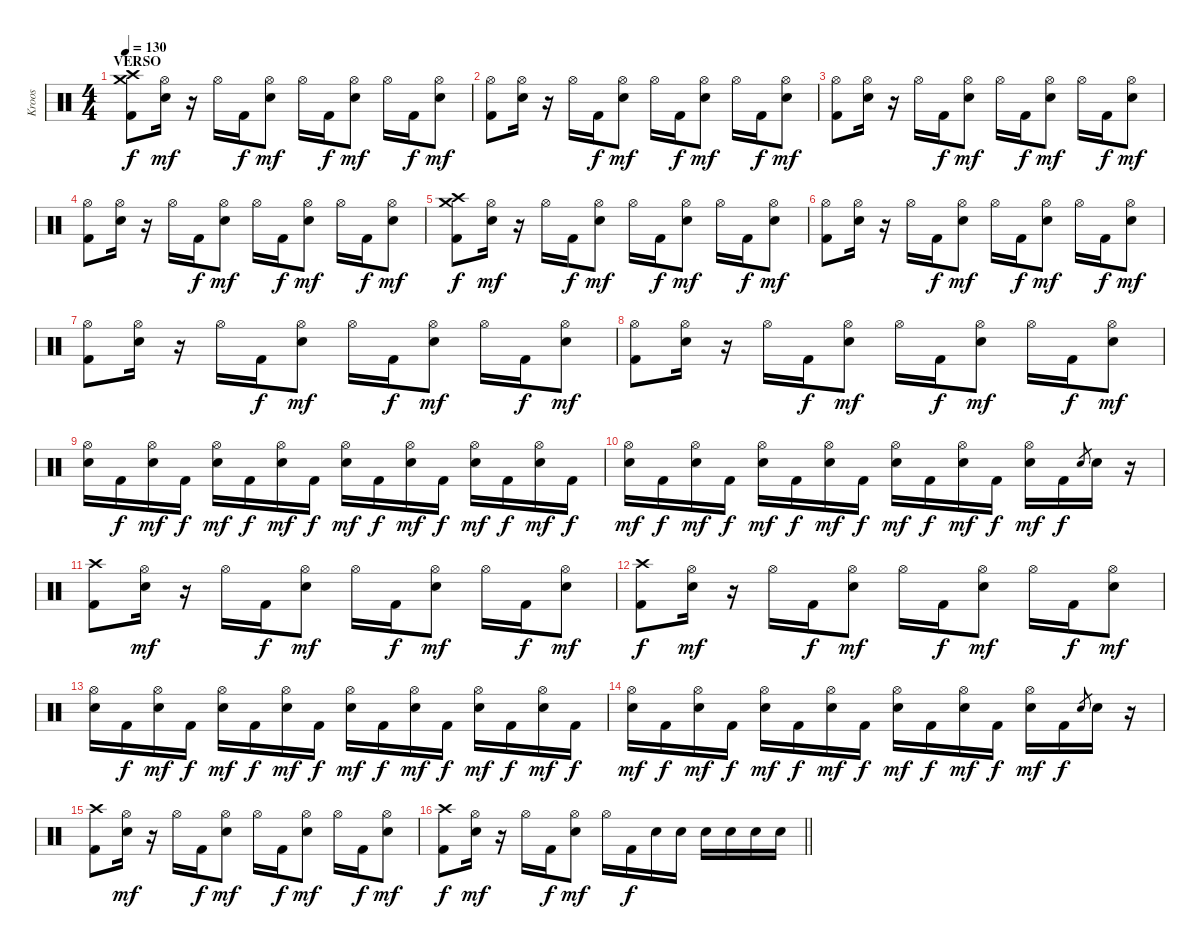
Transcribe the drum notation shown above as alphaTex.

\track ("Kroos" "Kroos") {instrument percussion}
\staff {score}
\articulation defaults
\ts (4 4)
\section ("" "VERSO")
\tempo 130
\clef neutral
\ks c
("Crash high (hit)" "Crash medium (hit)" "Kick (hit) 2").8{dy f} ("Hi-Hat (open)" "Electric Snare (hit)").16{dy mf} r.16 "Hi-Hat (open)".16 "Kick (hit) 2".16{dy f} ("Hi-Hat (open)" "Electric Snare (hit)").8{dy mf} "Hi-Hat (open)".16 "Kick (hit) 2".16{dy f} ("Hi-Hat (open)" "Electric Snare (hit)").8{dy mf} "Hi-Hat (open)".16 "Kick (hit) 2".16{dy f} ("Hi-Hat (open)" "Electric Snare (hit)").8{dy mf} |
("Hi-Hat (open)" "Kick (hit) 2").8 ("Hi-Hat (open)" "Electric Snare (hit)").16 r.16 "Hi-Hat (open)".16 "Kick (hit) 2".16{dy f} ("Hi-Hat (open)" "Electric Snare (hit)").8{dy mf} "Hi-Hat (open)".16 "Kick (hit) 2".16{dy f} ("Hi-Hat (open)" "Electric Snare (hit)").8{dy mf} "Hi-Hat (open)".16 "Kick (hit) 2".16{dy f} ("Hi-Hat (open)" "Electric Snare (hit)").8{dy mf} |
("Hi-Hat (open)" "Kick (hit) 2").8 ("Hi-Hat (open)" "Electric Snare (hit)").16 r.16 "Hi-Hat (open)".16 "Kick (hit) 2".16{dy f} ("Hi-Hat (open)" "Electric Snare (hit)").8{dy mf} "Hi-Hat (open)".16 "Kick (hit) 2".16{dy f} ("Hi-Hat (open)" "Electric Snare (hit)").8{dy mf} "Hi-Hat (open)".16 "Kick (hit) 2".16{dy f} ("Hi-Hat (open)" "Electric Snare (hit)").8{dy mf} |
("Hi-Hat (open)" "Kick (hit) 2").8 ("Hi-Hat (open)" "Electric Snare (hit)").16 r.16 "Hi-Hat (open)".16 "Kick (hit) 2".16{dy f} ("Hi-Hat (open)" "Electric Snare (hit)").8{dy mf} "Hi-Hat (open)".16 "Kick (hit) 2".16{dy f} ("Hi-Hat (open)" "Electric Snare (hit)").8{dy mf} "Hi-Hat (open)".16 "Kick (hit) 2".16{dy f} ("Hi-Hat (open)" "Electric Snare (hit)").8{dy mf} |
("Crash high (hit)" "Crash medium (hit)" "Kick (hit) 2").8{dy f} ("Hi-Hat (open)" "Electric Snare (hit)").16{dy mf} r.16 "Hi-Hat (open)".16 "Kick (hit) 2".16{dy f} ("Hi-Hat (open)" "Electric Snare (hit)").8{dy mf} "Hi-Hat (open)".16 "Kick (hit) 2".16{dy f} ("Hi-Hat (open)" "Electric Snare (hit)").8{dy mf} "Hi-Hat (open)".16 "Kick (hit) 2".16{dy f} ("Hi-Hat (open)" "Electric Snare (hit)").8{dy mf} |
("Hi-Hat (open)" "Kick (hit) 2").8 ("Hi-Hat (open)" "Electric Snare (hit)").16 r.16 "Hi-Hat (open)".16 "Kick (hit) 2".16{dy f} ("Hi-Hat (open)" "Electric Snare (hit)").8{dy mf} "Hi-Hat (open)".16 "Kick (hit) 2".16{dy f} ("Hi-Hat (open)" "Electric Snare (hit)").8{dy mf} "Hi-Hat (open)".16 "Kick (hit) 2".16{dy f} ("Hi-Hat (open)" "Electric Snare (hit)").8{dy mf} |
("Hi-Hat (open)" "Kick (hit) 2").8 ("Hi-Hat (open)" "Electric Snare (hit)").16 r.16 "Hi-Hat (open)".16 "Kick (hit) 2".16{dy f} ("Hi-Hat (open)" "Electric Snare (hit)").8{dy mf} "Hi-Hat (open)".16 "Kick (hit) 2".16{dy f} ("Hi-Hat (open)" "Electric Snare (hit)").8{dy mf} "Hi-Hat (open)".16 "Kick (hit) 2".16{dy f} ("Hi-Hat (open)" "Electric Snare (hit)").8{dy mf} |
("Hi-Hat (open)" "Kick (hit) 2").8 ("Hi-Hat (open)" "Electric Snare (hit)").16 r.16 "Hi-Hat (open)".16 "Kick (hit) 2".16{dy f} ("Hi-Hat (open)" "Electric Snare (hit)").8{dy mf} "Hi-Hat (open)".16 "Kick (hit) 2".16{dy f} ("Hi-Hat (open)" "Electric Snare (hit)").8{dy mf} "Hi-Hat (open)".16 "Kick (hit) 2".16{dy f} ("Hi-Hat (open)" "Electric Snare (hit)").8{dy mf} |
("Hi-Hat (open)" "Electric Snare (hit)").16 "Kick (hit) 2".16{dy f} ("Hi-Hat (open)" "Electric Snare (hit)").16{dy mf} "Kick (hit) 2".16{dy f} ("Hi-Hat (open)" "Electric Snare (hit)").16{dy mf} "Kick (hit) 2".16{dy f} ("Hi-Hat (open)" "Electric Snare (hit)").16{dy mf} "Kick (hit) 2".16{dy f} ("Hi-Hat (open)" "Electric Snare (hit)").16{dy mf} "Kick (hit) 2".16{dy f} ("Hi-Hat (open)" "Electric Snare (hit)").16{dy mf} "Kick (hit) 2".16{dy f} ("Hi-Hat (open)" "Electric Snare (hit)").16{dy mf} "Kick (hit) 2".16{dy f} ("Hi-Hat (open)" "Electric Snare (hit)").16{dy mf} "Kick (hit) 2".16{dy f} |
("Hi-Hat (open)" "Electric Snare (hit)").16{dy mf} "Kick (hit) 2".16{dy f} ("Hi-Hat (open)" "Electric Snare (hit)").16{dy mf} "Kick (hit) 2".16{dy f} ("Hi-Hat (open)" "Electric Snare (hit)").16{dy mf} "Kick (hit) 2".16{dy f} ("Hi-Hat (open)" "Electric Snare (hit)").16{dy mf} "Kick (hit) 2".16{dy f} ("Hi-Hat (open)" "Electric Snare (hit)").16{dy mf} "Kick (hit) 2".16{dy f} ("Hi-Hat (open)" "Electric Snare (hit)").16{dy mf} "Kick (hit) 2".16{dy f} ("Hi-Hat (open)" "Electric Snare (hit)").16{dy mf} "Kick (hit) 2".16{dy f} "Electric Snare (hit)".8{gr} "Electric Snare (hit)".16 r.16 |
("Crash high (hit)" "Kick (hit) 2").8 ("Hi-Hat (open)" "Electric Snare (hit)").16{dy mf} r.16 "Hi-Hat (open)".16 "Kick (hit) 2".16{dy f} ("Hi-Hat (open)" "Electric Snare (hit)").8{dy mf} "Hi-Hat (open)".16 "Kick (hit) 2".16{dy f} ("Hi-Hat (open)" "Electric Snare (hit)").8{dy mf} "Hi-Hat (open)".16 "Kick (hit) 2".16{dy f} ("Hi-Hat (open)" "Electric Snare (hit)").8{dy mf} |
("Crash high (hit)" "Kick (hit) 2").8{dy f} ("Hi-Hat (open)" "Electric Snare (hit)").16{dy mf} r.16 "Hi-Hat (open)".16 "Kick (hit) 2".16{dy f} ("Hi-Hat (open)" "Electric Snare (hit)").8{dy mf} "Hi-Hat (open)".16 "Kick (hit) 2".16{dy f} ("Hi-Hat (open)" "Electric Snare (hit)").8{dy mf} "Hi-Hat (open)".16 "Kick (hit) 2".16{dy f} ("Hi-Hat (open)" "Electric Snare (hit)").8{dy mf} |
("Hi-Hat (open)" "Electric Snare (hit)").16 "Kick (hit) 2".16{dy f} ("Hi-Hat (open)" "Electric Snare (hit)").16{dy mf} "Kick (hit) 2".16{dy f} ("Hi-Hat (open)" "Electric Snare (hit)").16{dy mf} "Kick (hit) 2".16{dy f} ("Hi-Hat (open)" "Electric Snare (hit)").16{dy mf} "Kick (hit) 2".16{dy f} ("Hi-Hat (open)" "Electric Snare (hit)").16{dy mf} "Kick (hit) 2".16{dy f} ("Hi-Hat (open)" "Electric Snare (hit)").16{dy mf} "Kick (hit) 2".16{dy f} ("Hi-Hat (open)" "Electric Snare (hit)").16{dy mf} "Kick (hit) 2".16{dy f} ("Hi-Hat (open)" "Electric Snare (hit)").16{dy mf} "Kick (hit) 2".16{dy f} |
("Hi-Hat (open)" "Electric Snare (hit)").16{dy mf} "Kick (hit) 2".16{dy f} ("Hi-Hat (open)" "Electric Snare (hit)").16{dy mf} "Kick (hit) 2".16{dy f} ("Hi-Hat (open)" "Electric Snare (hit)").16{dy mf} "Kick (hit) 2".16{dy f} ("Hi-Hat (open)" "Electric Snare (hit)").16{dy mf} "Kick (hit) 2".16{dy f} ("Hi-Hat (open)" "Electric Snare (hit)").16{dy mf} "Kick (hit) 2".16{dy f} ("Hi-Hat (open)" "Electric Snare (hit)").16{dy mf} "Kick (hit) 2".16{dy f} ("Hi-Hat (open)" "Electric Snare (hit)").16{dy mf} "Kick (hit) 2".16{dy f} "Electric Snare (hit)".8{gr} "Electric Snare (hit)".16 r.16 |
("Crash high (hit)" "Kick (hit) 2").8 ("Hi-Hat (open)" "Electric Snare (hit)").16{dy mf} r.16 "Hi-Hat (open)".16 "Kick (hit) 2".16{dy f} ("Hi-Hat (open)" "Electric Snare (hit)").8{dy mf} "Hi-Hat (open)".16 "Kick (hit) 2".16{dy f} ("Hi-Hat (open)" "Electric Snare (hit)").8{dy mf} "Hi-Hat (open)".16 "Kick (hit) 2".16{dy f} ("Hi-Hat (open)" "Electric Snare (hit)").8{dy mf} |
\barLineRight lightlight
("Crash high (hit)" "Kick (hit) 2").8{dy f} ("Hi-Hat (open)" "Electric Snare (hit)").16{dy mf} r.16 "Hi-Hat (open)".16 "Kick (hit) 2".16{dy f} ("Hi-Hat (open)" "Electric Snare (hit)").8{dy mf} "Hi-Hat (open)".16 "Kick (hit) 2".16{dy f} "Electric Snare (hit)".16 "Electric Snare (hit)".16 "Electric Snare (hit)".16 "Electric Snare (hit)".16 "Electric Snare (hit)".16 "Electric Snare (hit)".16
